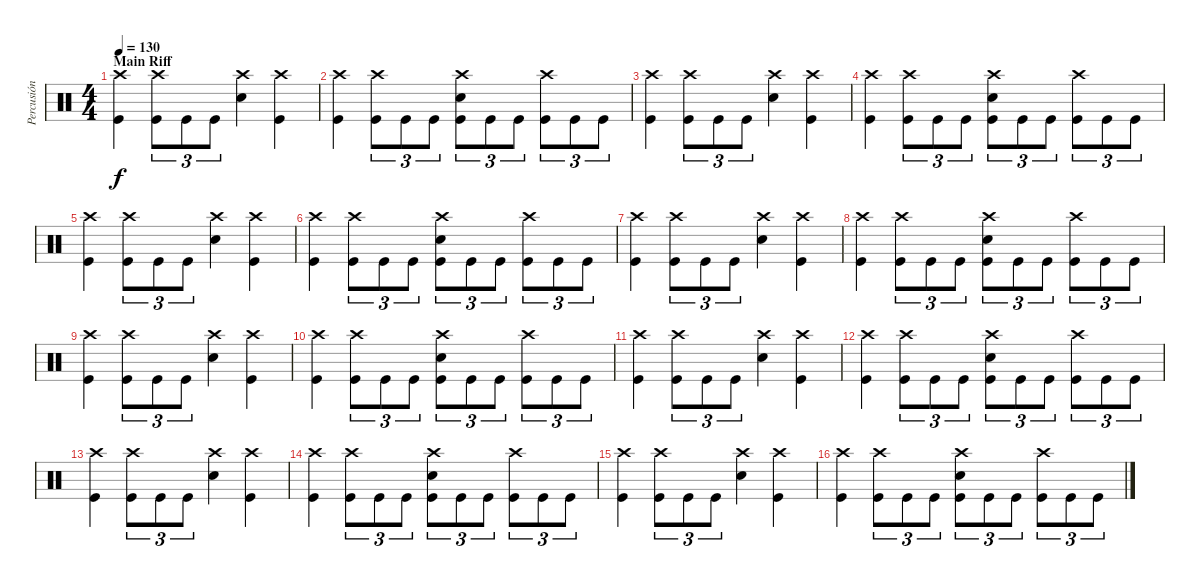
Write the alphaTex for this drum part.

\track ("Percusión" "Percusión") {instrument percussion}
\staff {score}
\articulation defaults
\ts (4 4)
\section ("" "Main Riff")
\tempo 130
\clef neutral
\ks c
("Crash high (hit)" "Kick (hit)").4{dy f} ("Crash high (hit)" "Kick (hit)").8{tu (3 2)} "Kick (hit)".8{tu (3 2)} "Kick (hit)".8{tu (3 2)} ("Snare (hit) 2" "Crash high (hit)").4 ("Crash high (hit)" "Kick (hit)").4 |
("Crash high (hit)" "Kick (hit)").4 ("Crash high (hit)" "Kick (hit)").8{tu (3 2)} "Kick (hit)".8{tu (3 2)} "Kick (hit)".8{tu (3 2)} ("Snare (hit) 2" "Crash high (hit)" "Kick (hit)").8{tu (3 2)} "Kick (hit)".8{tu (3 2)} "Kick (hit)".8{tu (3 2)} ("Crash high (hit)" "Kick (hit)").8{tu (3 2)} "Kick (hit)".8{tu (3 2)} "Kick (hit)".8{tu (3 2)} |
("Crash high (hit)" "Kick (hit)").4 ("Crash high (hit)" "Kick (hit)").8{tu (3 2)} "Kick (hit)".8{tu (3 2)} "Kick (hit)".8{tu (3 2)} ("Snare (hit) 2" "Crash high (hit)").4 ("Crash high (hit)" "Kick (hit)").4 |
("Crash high (hit)" "Kick (hit)").4 ("Crash high (hit)" "Kick (hit)").8{tu (3 2)} "Kick (hit)".8{tu (3 2)} "Kick (hit)".8{tu (3 2)} ("Snare (hit) 2" "Crash high (hit)" "Kick (hit)").8{tu (3 2)} "Kick (hit)".8{tu (3 2)} "Kick (hit)".8{tu (3 2)} ("Crash high (hit)" "Kick (hit)").8{tu (3 2)} "Kick (hit)".8{tu (3 2)} "Kick (hit)".8{tu (3 2)} |
("Crash high (hit)" "Kick (hit)").4 ("Crash high (hit)" "Kick (hit)").8{tu (3 2)} "Kick (hit)".8{tu (3 2)} "Kick (hit)".8{tu (3 2)} ("Snare (hit) 2" "Crash high (hit)").4 ("Crash high (hit)" "Kick (hit)").4 |
("Crash high (hit)" "Kick (hit)").4 ("Crash high (hit)" "Kick (hit)").8{tu (3 2)} "Kick (hit)".8{tu (3 2)} "Kick (hit)".8{tu (3 2)} ("Snare (hit) 2" "Crash high (hit)" "Kick (hit)").8{tu (3 2)} "Kick (hit)".8{tu (3 2)} "Kick (hit)".8{tu (3 2)} ("Crash high (hit)" "Kick (hit)").8{tu (3 2)} "Kick (hit)".8{tu (3 2)} "Kick (hit)".8{tu (3 2)} |
("Crash high (hit)" "Kick (hit)").4 ("Crash high (hit)" "Kick (hit)").8{tu (3 2)} "Kick (hit)".8{tu (3 2)} "Kick (hit)".8{tu (3 2)} ("Snare (hit) 2" "Crash high (hit)").4 ("Crash high (hit)" "Kick (hit)").4 |
("Crash high (hit)" "Kick (hit)").4 ("Crash high (hit)" "Kick (hit)").8{tu (3 2)} "Kick (hit)".8{tu (3 2)} "Kick (hit)".8{tu (3 2)} ("Snare (hit) 2" "Crash high (hit)" "Kick (hit)").8{tu (3 2)} "Kick (hit)".8{tu (3 2)} "Kick (hit)".8{tu (3 2)} ("Crash high (hit)" "Kick (hit)").8{tu (3 2)} "Kick (hit)".8{tu (3 2)} "Kick (hit)".8{tu (3 2)} |
("Crash high (hit)" "Kick (hit)").4 ("Crash high (hit)" "Kick (hit)").8{tu (3 2)} "Kick (hit)".8{tu (3 2)} "Kick (hit)".8{tu (3 2)} ("Snare (hit) 2" "Crash high (hit)").4 ("Crash high (hit)" "Kick (hit)").4 |
("Crash high (hit)" "Kick (hit)").4 ("Crash high (hit)" "Kick (hit)").8{tu (3 2)} "Kick (hit)".8{tu (3 2)} "Kick (hit)".8{tu (3 2)} ("Snare (hit) 2" "Crash high (hit)" "Kick (hit)").8{tu (3 2)} "Kick (hit)".8{tu (3 2)} "Kick (hit)".8{tu (3 2)} ("Crash high (hit)" "Kick (hit)").8{tu (3 2)} "Kick (hit)".8{tu (3 2)} "Kick (hit)".8{tu (3 2)} |
("Crash high (hit)" "Kick (hit)").4 ("Crash high (hit)" "Kick (hit)").8{tu (3 2)} "Kick (hit)".8{tu (3 2)} "Kick (hit)".8{tu (3 2)} ("Snare (hit) 2" "Crash high (hit)").4 ("Crash high (hit)" "Kick (hit)").4 |
("Crash high (hit)" "Kick (hit)").4 ("Crash high (hit)" "Kick (hit)").8{tu (3 2)} "Kick (hit)".8{tu (3 2)} "Kick (hit)".8{tu (3 2)} ("Snare (hit) 2" "Crash high (hit)" "Kick (hit)").8{tu (3 2)} "Kick (hit)".8{tu (3 2)} "Kick (hit)".8{tu (3 2)} ("Crash high (hit)" "Kick (hit)").8{tu (3 2)} "Kick (hit)".8{tu (3 2)} "Kick (hit)".8{tu (3 2)} |
("Crash high (hit)" "Kick (hit)").4 ("Crash high (hit)" "Kick (hit)").8{tu (3 2)} "Kick (hit)".8{tu (3 2)} "Kick (hit)".8{tu (3 2)} ("Snare (hit) 2" "Crash high (hit)").4 ("Crash high (hit)" "Kick (hit)").4 |
("Crash high (hit)" "Kick (hit)").4 ("Crash high (hit)" "Kick (hit)").8{tu (3 2)} "Kick (hit)".8{tu (3 2)} "Kick (hit)".8{tu (3 2)} ("Snare (hit) 2" "Crash high (hit)" "Kick (hit)").8{tu (3 2)} "Kick (hit)".8{tu (3 2)} "Kick (hit)".8{tu (3 2)} ("Crash high (hit)" "Kick (hit)").8{tu (3 2)} "Kick (hit)".8{tu (3 2)} "Kick (hit)".8{tu (3 2)} |
("Crash high (hit)" "Kick (hit)").4 ("Crash high (hit)" "Kick (hit)").8{tu (3 2)} "Kick (hit)".8{tu (3 2)} "Kick (hit)".8{tu (3 2)} ("Snare (hit) 2" "Crash high (hit)").4 ("Crash high (hit)" "Kick (hit)").4 |
("Crash high (hit)" "Kick (hit)").4 ("Crash high (hit)" "Kick (hit)").8{tu (3 2)} "Kick (hit)".8{tu (3 2)} "Kick (hit)".8{tu (3 2)} ("Snare (hit) 2" "Crash high (hit)" "Kick (hit)").8{tu (3 2)} "Kick (hit)".8{tu (3 2)} "Kick (hit)".8{tu (3 2)} ("Crash high (hit)" "Kick (hit)").8{tu (3 2)} "Kick (hit)".8{tu (3 2)} "Kick (hit)".8{tu (3 2)}
